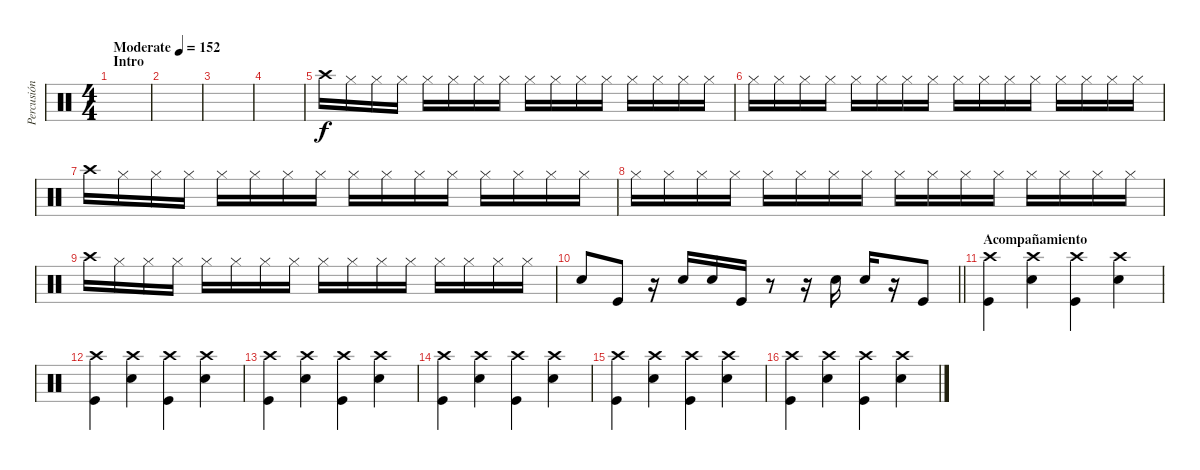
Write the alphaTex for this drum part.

\track ("Percusión" "Percusión") {instrument percussion}
\staff {score}
\articulation defaults
\ts (4 4)
\section ("" "Intro")
\tempo (152 "Moderate")
\clef neutral
\ks c
|
|
|
|
"Crash high (hit)".16 "Hi-Hat (closed)".16 "Hi-Hat (closed)".16 "Hi-Hat (closed)".16 "Hi-Hat (closed)".16 "Hi-Hat (closed)".16 "Hi-Hat (closed)".16 "Hi-Hat (closed)".16 "Hi-Hat (closed)".16 "Hi-Hat (closed)".16 "Hi-Hat (closed)".16 "Hi-Hat (closed)".16 "Hi-Hat (closed)".16 "Hi-Hat (closed)".16 "Hi-Hat (closed)".16 "Hi-Hat (closed)".16 |
"Hi-Hat (closed)".16 "Hi-Hat (closed)".16 "Hi-Hat (closed)".16 "Hi-Hat (closed)".16 "Hi-Hat (closed)".16 "Hi-Hat (closed)".16 "Hi-Hat (closed)".16 "Hi-Hat (closed)".16 "Hi-Hat (closed)".16 "Hi-Hat (closed)".16 "Hi-Hat (closed)".16 "Hi-Hat (closed)".16 "Hi-Hat (closed)".16 "Hi-Hat (closed)".16 "Hi-Hat (closed)".16 "Hi-Hat (closed)".16 |
"Crash high (hit)".16 "Hi-Hat (closed)".16 "Hi-Hat (closed)".16 "Hi-Hat (closed)".16 "Hi-Hat (closed)".16 "Hi-Hat (closed)".16 "Hi-Hat (closed)".16 "Hi-Hat (closed)".16 "Hi-Hat (closed)".16 "Hi-Hat (closed)".16 "Hi-Hat (closed)".16 "Hi-Hat (closed)".16 "Hi-Hat (closed)".16 "Hi-Hat (closed)".16 "Hi-Hat (closed)".16 "Hi-Hat (closed)".16 |
"Hi-Hat (closed)".16 "Hi-Hat (closed)".16 "Hi-Hat (closed)".16 "Hi-Hat (closed)".16 "Hi-Hat (closed)".16 "Hi-Hat (closed)".16 "Hi-Hat (closed)".16 "Hi-Hat (closed)".16 "Hi-Hat (closed)".16 "Hi-Hat (closed)".16 "Hi-Hat (closed)".16 "Hi-Hat (closed)".16 "Hi-Hat (closed)".16 "Hi-Hat (closed)".16 "Hi-Hat (closed)".16 "Hi-Hat (closed)".16 |
"Crash high (hit)".16 "Hi-Hat (closed)".16 "Hi-Hat (closed)".16 "Hi-Hat (closed)".16 "Hi-Hat (closed)".16 "Hi-Hat (closed)".16 "Hi-Hat (closed)".16 "Hi-Hat (closed)".16 "Hi-Hat (closed)".16 "Hi-Hat (closed)".16 "Hi-Hat (closed)".16 "Hi-Hat (closed)".16 "Hi-Hat (closed)".16 "Hi-Hat (closed)".16 "Hi-Hat (closed)".16 "Hi-Hat (closed)".16 |
\barLineRight lightlight "Snare (hit) 2".8 "Kick (hit)".8
r.16 "Snare (hit) 2".16 "Snare (hit) 2".16 "Kick (hit)".16 r.8 r.16 "Snare (hit) 2".16 "Snare (hit) 2".16 r.16 "Kick (hit)".8 |
\section ("" "Acompañamiento")
("Kick (hit)" "Crash high (hit)").4 ("Crash high (hit)" "Snare (hit) 2").4 ("Crash high (hit)" "Kick (hit)").4 ("Crash high (hit)" "Snare (hit) 2").4 |
("Crash high (hit)" "Kick (hit)").4 ("Crash high (hit)" "Snare (hit) 2").4 ("Crash high (hit)" "Kick (hit)").4 ("Crash high (hit)" "Snare (hit) 2").4 |
("Crash high (hit)" "Kick (hit)").4 ("Snare (hit) 2" "Crash high (hit)").4 ("Crash high (hit)" "Kick (hit)").4 ("Crash high (hit)" "Snare (hit) 2").4 |
("Crash high (hit)" "Kick (hit)").4 ("Crash high (hit)" "Snare (hit) 2").4 ("Crash high (hit)" "Kick (hit)").4 ("Crash high (hit)" "Snare (hit) 2").4 |
("Crash high (hit)" "Kick (hit)").4 ("Crash high (hit)" "Snare (hit) 2").4 ("Crash high (hit)" "Kick (hit)").4 ("Crash high (hit)" "Snare (hit) 2").4 |
("Crash high (hit)" "Kick (hit)").4 ("Crash high (hit)" "Snare (hit) 2").4 ("Crash high (hit)" "Kick (hit)").4 ("Crash high (hit)" "Snare (hit) 2").4
